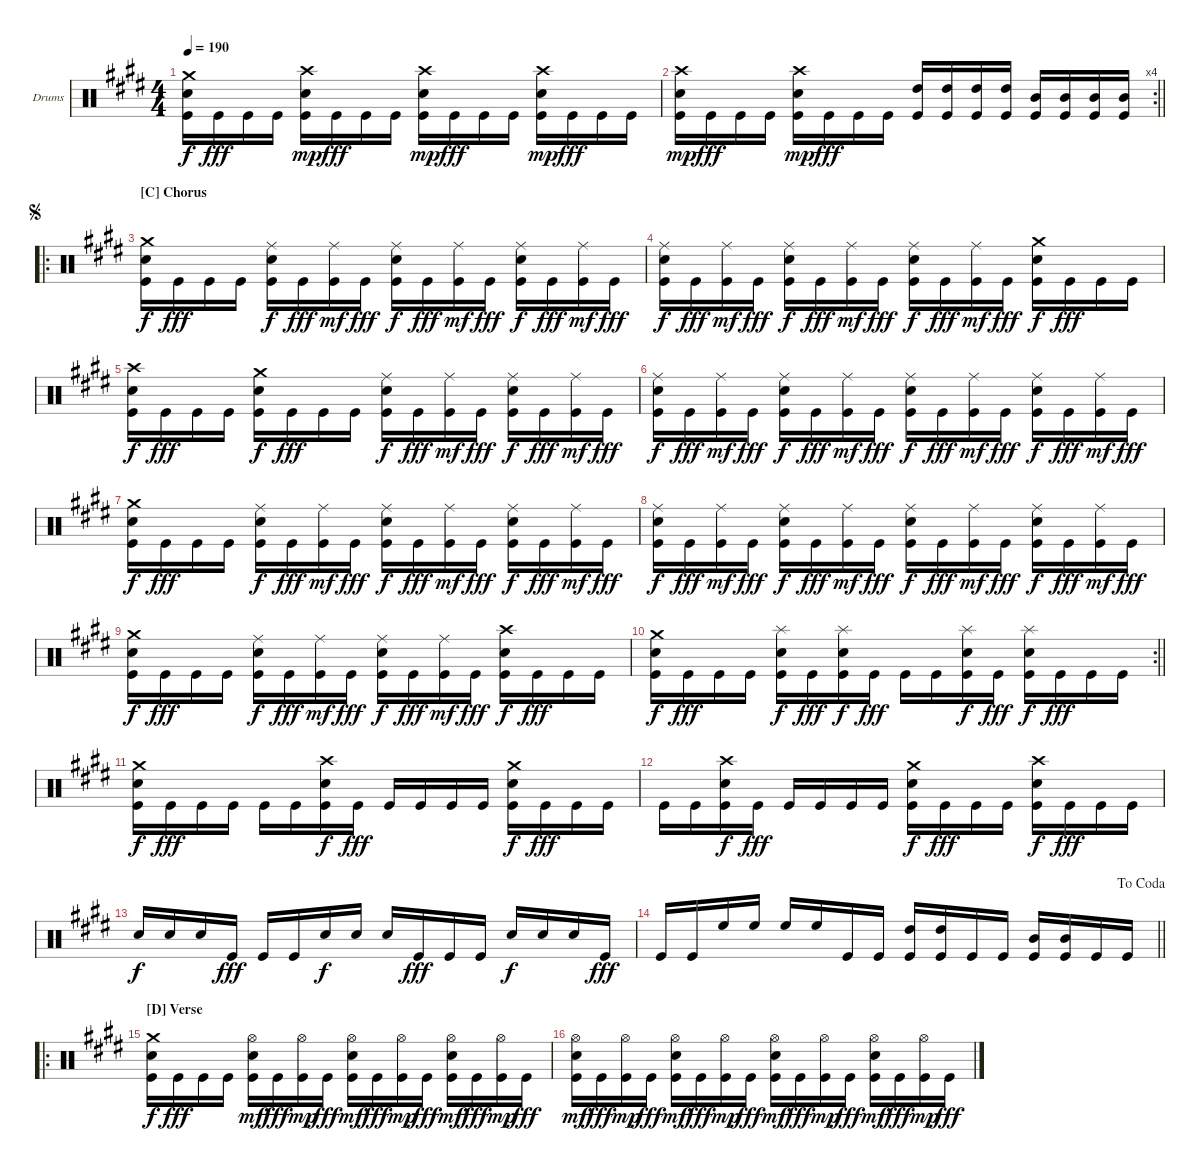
\bracketExtendMode groupsimilarinstruments
\firstSystemTrackNameOrientation horizontal
\otherSystemsTrackNameOrientation horizontal
\track ("Drumkit" "Drums") {instrument percussion}
\staff {score}
\articulation defaults
\ts (4 4)
\tempo 190
\clef neutral
\ks c#minor
("Crash medium (hit)" "Snare (hit) 2" "Kick (hit)").16{dy f} "Kick (hit)".16{dy fff} "Kick (hit)".16 "Kick (hit)".16 ("Crash high (hit)" "Snare (hit) 2" "Kick (hit)").16{dy mp} "Kick (hit)".16{dy fff} "Kick (hit)".16 "Kick (hit)".16 ("Crash high (hit)" "Snare (hit) 2" "Kick (hit)").16{dy mp} "Kick (hit)".16{dy fff} "Kick (hit)".16 "Kick (hit)".16 ("Crash high (hit)" "Snare (hit) 2" "Kick (hit)").16{dy mp} "Kick (hit)".16{dy fff} "Kick (hit)".16 "Kick (hit)".16 |
\rc 4
\barLineRight lightlight
("Crash high (hit)" "Snare (hit) 2" "Kick (hit)").16{dy mp} "Kick (hit)".16{dy fff} "Kick (hit)".16 "Kick (hit)".16 ("Crash high (hit)" "Snare (hit) 2" "Kick (hit)").16{dy mp} "Kick (hit)".16{dy fff} "Kick (hit)".16 "Kick (hit)".16 ("High Tom (hit)" "Kick (hit)").16 ("High Tom (hit)" "Kick (hit)").16 ("High Tom (hit)" "Kick (hit)").16 ("High Tom (hit)" "Kick (hit)").16 ("Mid Tom (hit)" "Kick (hit)").16 ("Mid Tom (hit)" "Kick (hit)").16 ("Mid Tom (hit)" "Kick (hit)").16 ("Mid Tom (hit)" "Kick (hit)").16 |
\ro
\section ("C" "Chorus")
\jump segno
("Crash medium (hit)" "Snare (hit) 2" "Kick (hit)").16{dy f} "Kick (hit)".16{dy fff} "Kick (hit)".16 "Kick (hit)".16 ("Ride (middle)" "Snare (hit) 2" "Kick (hit)").16{dy f} "Kick (hit)".16{dy fff} ("Ride (middle)" "Kick (hit)").16{dy mf} "Kick (hit)".16{dy fff} ("Ride (middle)" "Snare (hit) 2" "Kick (hit)").16{dy f} "Kick (hit)".16{dy fff} ("Ride (middle)" "Kick (hit)").16{dy mf} "Kick (hit)".16{dy fff} ("Ride (middle)" "Snare (hit) 2" "Kick (hit)").16{dy f} "Kick (hit)".16{dy fff} ("Ride (middle)" "Kick (hit)").16{dy mf} "Kick (hit)".16{dy fff} |
("Ride (middle)" "Snare (hit) 2" "Kick (hit)").16{dy f} "Kick (hit)".16{dy fff} ("Ride (middle)" "Kick (hit)").16{dy mf} "Kick (hit)".16{dy fff} ("Ride (middle)" "Snare (hit) 2" "Kick (hit)").16{dy f} "Kick (hit)".16{dy fff} ("Ride (middle)" "Kick (hit)").16{dy mf} "Kick (hit)".16{dy fff} ("Ride (middle)" "Snare (hit) 2" "Kick (hit)").16{dy f} "Kick (hit)".16{dy fff} ("Ride (middle)" "Kick (hit)").16{dy mf} "Kick (hit)".16{dy fff} ("Crash medium (hit)" "Snare (hit) 2" "Kick (hit)").16{dy f} "Kick (hit)".16{dy fff} "Kick (hit)".16 "Kick (hit)".16 |
("Crash high (hit)" "Snare (hit) 2" "Kick (hit)").16{dy f} "Kick (hit)".16{dy fff} "Kick (hit)".16 "Kick (hit)".16 ("Crash medium (hit)" "Snare (hit) 2" "Kick (hit)").16{dy f} "Kick (hit)".16{dy fff} "Kick (hit)".16 "Kick (hit)".16 ("Ride (middle)" "Snare (hit) 2" "Kick (hit)").16{dy f} "Kick (hit)".16{dy fff} ("Ride (middle)" "Kick (hit)").16{dy mf} "Kick (hit)".16{dy fff} ("Ride (middle)" "Snare (hit) 2" "Kick (hit)").16{dy f} "Kick (hit)".16{dy fff} ("Ride (middle)" "Kick (hit)").16{dy mf} "Kick (hit)".16{dy fff} |
("Ride (middle)" "Snare (hit) 2" "Kick (hit)").16{dy f} "Kick (hit)".16{dy fff} ("Ride (middle)" "Kick (hit)").16{dy mf} "Kick (hit)".16{dy fff} ("Ride (middle)" "Snare (hit) 2" "Kick (hit)").16{dy f} "Kick (hit)".16{dy fff} ("Ride (middle)" "Kick (hit)").16{dy mf} "Kick (hit)".16{dy fff} ("Ride (middle)" "Snare (hit) 2" "Kick (hit)").16{dy f} "Kick (hit)".16{dy fff} ("Ride (middle)" "Kick (hit)").16{dy mf} "Kick (hit)".16{dy fff} ("Ride (middle)" "Snare (hit) 2" "Kick (hit)").16{dy f} "Kick (hit)".16{dy fff} ("Ride (middle)" "Kick (hit)").16{dy mf} "Kick (hit)".16{dy fff} |
("Crash medium (hit)" "Snare (hit) 2" "Kick (hit)").16{dy f} "Kick (hit)".16{dy fff} "Kick (hit)".16 "Kick (hit)".16 ("Ride (middle)" "Snare (hit) 2" "Kick (hit)").16{dy f} "Kick (hit)".16{dy fff} ("Ride (middle)" "Kick (hit)").16{dy mf} "Kick (hit)".16{dy fff} ("Ride (middle)" "Snare (hit) 2" "Kick (hit)").16{dy f} "Kick (hit)".16{dy fff} ("Ride (middle)" "Kick (hit)").16{dy mf} "Kick (hit)".16{dy fff} ("Ride (middle)" "Snare (hit) 2" "Kick (hit)").16{dy f} "Kick (hit)".16{dy fff} ("Ride (middle)" "Kick (hit)").16{dy mf} "Kick (hit)".16{dy fff} |
("Ride (middle)" "Snare (hit) 2" "Kick (hit)").16{dy f} "Kick (hit)".16{dy fff} ("Ride (middle)" "Kick (hit)").16{dy mf} "Kick (hit)".16{dy fff} ("Ride (middle)" "Snare (hit) 2" "Kick (hit)").16{dy f} "Kick (hit)".16{dy fff} ("Ride (middle)" "Kick (hit)").16{dy mf} "Kick (hit)".16{dy fff} ("Ride (middle)" "Snare (hit) 2" "Kick (hit)").16{dy f} "Kick (hit)".16{dy fff} ("Ride (middle)" "Kick (hit)").16{dy mf} "Kick (hit)".16{dy fff} ("Ride (middle)" "Snare (hit) 2" "Kick (hit)").16{dy f} "Kick (hit)".16{dy fff} ("Ride (middle)" "Kick (hit)").16{dy mf} "Kick (hit)".16{dy fff} |
("Crash medium (hit)" "Snare (hit) 2" "Kick (hit)").16{dy f} "Kick (hit)".16{dy fff} "Kick (hit)".16 "Kick (hit)".16 ("Ride (middle)" "Snare (hit) 2" "Kick (hit)").16{dy f} "Kick (hit)".16{dy fff} ("Ride (middle)" "Kick (hit)").16{dy mf} "Kick (hit)".16{dy fff} ("Ride (middle)" "Snare (hit) 2" "Kick (hit)").16{dy f} "Kick (hit)".16{dy fff} ("Ride (middle)" "Kick (hit)").16{dy mf} "Kick (hit)".16{dy fff} ("Crash high (hit)" "Snare (hit) 2" "Kick (hit)").16{dy f} "Kick (hit)".16{dy fff} "Kick (hit)".16 "Kick (hit)".16 |
\rc 2
\barLineRight lightlight
("Crash medium (hit)" "Snare (hit) 2" "Kick (hit)").16{dy f} "Kick (hit)".16{dy fff} "Kick (hit)".16 "Kick (hit)".16 ("Splash (hit)" "Snare (hit) 2" "Kick (hit)").16{dy f} "Kick (hit)".16{dy fff} ("Splash (hit)" "Snare (hit) 2" "Kick (hit)").16{dy f} "Kick (hit)".16{dy fff} "Kick (hit)".16 "Kick (hit)".16 ("Splash (hit)" "Snare (hit) 2" "Kick (hit)").16{dy f} "Kick (hit)".16{dy fff} ("Splash (hit)" "Snare (hit) 2" "Kick (hit)").16{dy f} "Kick (hit)".16{dy fff} "Kick (hit)".16 "Kick (hit)".16 |
("Crash medium (hit)" "Snare (hit) 2" "Kick (hit)").16{dy f} "Kick (hit)".16{dy fff} "Kick (hit)".16 "Kick (hit)".16 "Kick (hit)".16 "Kick (hit)".16 ("Crash high (hit)" "Snare (hit) 2" "Kick (hit)").16{dy f} "Kick (hit)".16{dy fff} "Kick (hit)".16 "Kick (hit)".16 "Kick (hit)".16 "Kick (hit)".16 ("Crash medium (hit)" "Snare (hit) 2" "Kick (hit)").16{dy f} "Kick (hit)".16{dy fff} "Kick (hit)".16 "Kick (hit)".16 |
"Kick (hit)".16 "Kick (hit)".16 ("Crash high (hit)" "Snare (hit) 2" "Kick (hit)").16{dy f} "Kick (hit)".16{dy fff} "Kick (hit)".16 "Kick (hit)".16 "Kick (hit)".16 "Kick (hit)".16 ("Crash medium (hit)" "Snare (hit) 2" "Kick (hit)").16{dy f} "Kick (hit)".16{dy fff} "Kick (hit)".16 "Kick (hit)".16 ("Crash high (hit)" "Snare (hit) 2" "Kick (hit)").16{dy f} "Kick (hit)".16{dy fff} "Kick (hit)".16 "Kick (hit)".16 |
"Snare (hit) 2".16{dy f} "Snare (hit) 2".16 "Snare (hit) 2".16 "Kick (hit)".16{dy fff} "Kick (hit)".16 "Kick (hit)".16 "Snare (hit) 2".16{dy f} "Snare (hit) 2".16 "Snare (hit) 2".16 "Kick (hit)".16{dy fff} "Kick (hit)".16 "Kick (hit)".16 "Snare (hit) 2".16{dy f} "Snare (hit) 2".16 "Snare (hit) 2".16 "Kick (hit)".16{dy fff} |
\jump dacoda
\barLineRight lightlight "Kick (hit)".16 "Kick (hit)".16 "High Floor Tom (hit)".16 "High Floor Tom (hit)".16 "High Floor Tom (hit)".16 "High Floor Tom (hit)".16 "Kick (hit)".16 "Kick (hit)".16
("High Tom (hit)" "Kick (hit)").16 ("High Tom (hit)" "Kick (hit)").16 "Kick (hit)".16 "Kick (hit)".16 ("Mid Tom (hit)" "Kick (hit)").16 ("Mid Tom (hit)" "Kick (hit)").16 "Kick (hit)".16 "Kick (hit)".16 |
\ro
\section ("D" "Verse")
("Crash medium (hit)" "Snare (hit) 2" "Kick (hit)").16{dy f} "Kick (hit)".16{dy fff} "Kick (hit)".16 "Kick (hit)".16 ("Hi-Hat (open)" "Snare (hit) 2" "Kick (hit)").16{dy mf} "Kick (hit)".16{dy fff} ("Hi-Hat (open)" "Kick (hit)").16{dy mp} "Kick (hit)".16{dy fff} ("Hi-Hat (open)" "Snare (hit) 2" "Kick (hit)").16{dy mf} "Kick (hit)".16{dy fff} ("Hi-Hat (open)" "Kick (hit)").16{dy mp} "Kick (hit)".16{dy fff} ("Hi-Hat (open)" "Snare (hit) 2" "Kick (hit)").16{dy mf} "Kick (hit)".16{dy fff} ("Hi-Hat (open)" "Kick (hit)").16{dy mp} "Kick (hit)".16{dy fff} |
("Hi-Hat (open)" "Snare (hit) 2" "Kick (hit)").16{dy mf} "Kick (hit)".16{dy fff} ("Hi-Hat (open)" "Kick (hit)").16{dy mp} "Kick (hit)".16{dy fff} ("Hi-Hat (open)" "Snare (hit) 2" "Kick (hit)").16{dy mf} "Kick (hit)".16{dy fff} ("Hi-Hat (open)" "Kick (hit)").16{dy mp} "Kick (hit)".16{dy fff} ("Hi-Hat (open)" "Snare (hit) 2" "Kick (hit)").16{dy mf} "Kick (hit)".16{dy fff} ("Hi-Hat (open)" "Kick (hit)").16{dy mp} "Kick (hit)".16{dy fff} ("Hi-Hat (open)" "Snare (hit) 2" "Kick (hit)").16{dy mf} "Kick (hit)".16{dy fff} ("Hi-Hat (open)" "Kick (hit)").16{dy mp} "Kick (hit)".16{dy fff}
